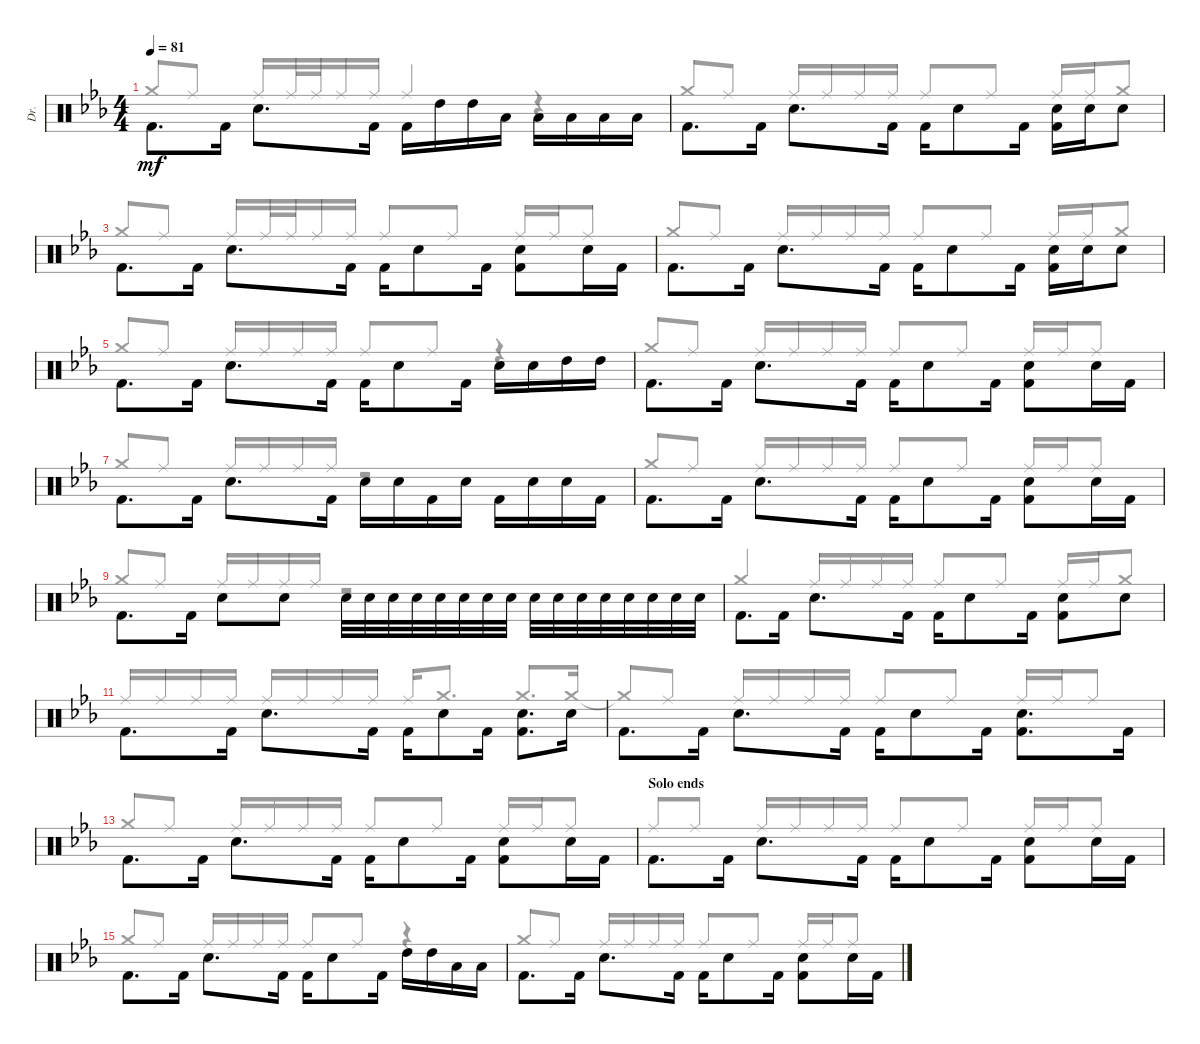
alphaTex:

\bracketExtendMode groupsimilarinstruments
\otherSystemsTrackNameOrientation horizontal
\defaultBarNumberDisplay FirstOfSystem
\track ("Drums" "Dr.") {multiBarRest instrument percussion}
\staff {score}
\articulation defaults
\voice
\ts (4 4)
\tempo 81
\clef neutral
\ks eb "Kick (hit) 2"{acc forcenatural}.8{d dy mf beam Down} "Kick (hit) 2"{acc forcenatural}.16{beam Down} "Snare (hit) 2"{acc forcenatural}.8{d beam Down} "Kick (hit) 2"{acc forcenatural}.16{beam Down} "Kick (hit) 2"{acc forcenatural}.16{beam Down} "High Tom (hit)"{acc forcenatural}.16{beam Down} "High Tom (hit)"{acc forcenatural}.16{beam Down} "Low Tom (hit)"{acc forcenatural}.16{beam Down} "Low Tom (hit)"{acc forcenatural}.16{beam Down} "Low Tom (hit)"{acc forcenatural}.16{beam Down} "Low Tom (hit)"{acc forcenatural}.16{beam Down} "Low Tom (hit)"{acc forcenatural}.16{beam Down}
|
"Kick (hit) 2"{acc forcenatural}.8{d beam Down} "Kick (hit) 2"{acc forcenatural}.16{beam Down} "Snare (hit) 2"{acc forcenatural}.8{d beam Down} "Kick (hit) 2"{acc forcenatural}.16{beam Down} "Kick (hit) 2"{acc forcenatural}.16{beam Down} "Snare (hit) 2"{acc forcenatural}.8{beam Down} "Kick (hit) 2"{acc forcenatural}.16{beam Down} ("Snare (hit) 2"{acc forcenatural} "Kick (hit) 2"{acc forcenatural}).16{beam Down} "Snare (hit) 2"{acc forcenatural}.16{beam Down} "Snare (hit) 2"{acc forcenatural}.8{beam Down} |
"Kick (hit) 2"{acc forcenatural}.8{d beam Down} "Kick (hit) 2"{acc forcenatural}.16{beam Down} "Snare (hit) 2"{acc forcenatural}.8{d beam Down} "Kick (hit) 2"{acc forcenatural}.16{beam Down} "Kick (hit) 2"{acc forcenatural}.16{beam Down} "Snare (hit) 2"{acc forcenatural}.8{beam Down} "Kick (hit) 2"{acc forcenatural}.16{beam Down} ("Snare (hit) 2"{acc forcenatural} "Kick (hit) 2"{acc forcenatural}).8{beam Down} "Snare (hit) 2"{acc forcenatural}.16{beam Down} "Kick (hit) 2"{acc forcenatural}.16{beam Down} |
"Kick (hit) 2"{acc forcenatural}.8{d beam Down} "Kick (hit) 2"{acc forcenatural}.16{beam Down} "Snare (hit) 2"{acc forcenatural}.8{d beam Down} "Kick (hit) 2"{acc forcenatural}.16{beam Down} "Kick (hit) 2"{acc forcenatural}.16{beam Down} "Snare (hit) 2"{acc forcenatural}.8{beam Down} "Kick (hit) 2"{acc forcenatural}.16{beam Down} ("Kick (hit) 2"{acc forcenatural} "Snare (hit) 2"{acc forcenatural}).16{beam Down} "Snare (hit) 2"{acc forcenatural}.16{beam Down} "Snare (hit) 2"{acc forcenatural}.8{beam Down} |
"Kick (hit) 2"{acc forcenatural}.8{d beam Down} "Kick (hit) 2"{acc forcenatural}.16{beam Down} "Snare (hit) 2"{acc forcenatural}.8{d beam Down} "Kick (hit) 2"{acc forcenatural}.16{beam Down} "Kick (hit) 2"{acc forcenatural}.16{beam Down} "Snare (hit) 2"{acc forcenatural}.8{beam Down} "Kick (hit) 2"{acc forcenatural}.16{beam Down} "Snare (hit) 2"{acc forcenatural}.16{beam Down} "Snare (hit) 2"{acc forcenatural}.16{beam Down} "High Tom (hit)"{acc forcenatural}.16{beam Down} "High Tom (hit)"{acc forcenatural}.16{beam Down} |
"Kick (hit) 2"{acc forcenatural}.8{d beam Down} "Kick (hit) 2"{acc forcenatural}.16{beam Down} "Snare (hit) 2"{acc forcenatural}.8{d beam Down} "Kick (hit) 2"{acc forcenatural}.16{beam Down} "Kick (hit) 2"{acc forcenatural}.16{beam Down} "Snare (hit) 2"{acc forcenatural}.8{beam Down} "Kick (hit) 2"{acc forcenatural}.16{beam Down} ("Snare (hit) 2"{acc forcenatural} "Kick (hit) 2"{acc forcenatural}).8{beam Down} "Snare (hit) 2"{acc forcenatural}.16{beam Down} "Kick (hit) 2"{acc forcenatural}.16{beam Down} |
"Kick (hit) 2"{acc forcenatural}.8{d beam Down} "Kick (hit) 2"{acc forcenatural}.16{beam Down} "Snare (hit) 2"{acc forcenatural}.8{d beam Down} "Kick (hit) 2"{acc forcenatural}.16{beam Down} "Snare (hit) 2"{acc forcenatural}.16{beam Down} "Snare (hit) 2"{acc forcenatural}.16{beam Down} "Kick (hit) 2"{acc forcenatural}.16{beam Down} "Snare (hit) 2"{acc forcenatural}.16{beam Down} "Kick (hit) 2"{acc forcenatural}.16{beam Down} "Snare (hit) 2"{acc forcenatural}.16{beam Down} "Snare (hit) 2"{acc forcenatural}.16{beam Down} "Kick (hit) 2"{acc forcenatural}.16{beam Down} |
"Kick (hit) 2"{acc forcenatural}.8{d beam Down} "Kick (hit) 2"{acc forcenatural}.16{beam Down} "Snare (hit) 2"{acc forcenatural}.8{d beam Down} "Kick (hit) 2"{acc forcenatural}.16{beam Down} "Kick (hit) 2"{acc forcenatural}.16{beam Down} "Snare (hit) 2"{acc forcenatural}.8{beam Down} "Kick (hit) 2"{acc forcenatural}.16{beam Down} ("Snare (hit) 2"{acc forcenatural} "Kick (hit) 2"{acc forcenatural}).8{beam Down} "Snare (hit) 2"{acc forcenatural}.16{beam Down} "Kick (hit) 2"{acc forcenatural}.16{beam Down} |
"Kick (hit) 2"{acc forcenatural}.8{d beam Down} "Kick (hit) 2"{acc forcenatural}.16{beam Down} "Snare (hit) 2"{acc forcenatural}.8{beam Down} "Snare (hit) 2"{acc forcenatural}.8{beam Down} "Snare (hit) 2"{acc forcenatural}.32{beam Down} "Snare (hit) 2"{acc forcenatural}.32{beam Down} "Snare (hit) 2"{acc forcenatural}.32{beam Down} "Snare (hit) 2"{acc forcenatural}.32{beam Down} "Snare (hit) 2"{acc forcenatural}.32{beam Down} "Snare (hit) 2"{acc forcenatural}.32{beam Down} "Snare (hit) 2"{acc forcenatural}.32{beam Down} "Snare (hit) 2"{acc forcenatural}.32{beam Down} "Snare (hit) 2"{acc forcenatural}.32{beam Down} "Snare (hit) 2"{acc forcenatural}.32{beam Down} "Snare (hit) 2"{acc forcenatural}.32{beam Down} "Snare (hit) 2"{acc forcenatural}.32{beam Down} "Snare (hit) 2"{acc forcenatural}.32{beam Down} "Snare (hit) 2"{acc forcenatural}.32{beam Down} "Snare (hit) 2"{acc forcenatural}.32{beam Down} "Snare (hit) 2"{acc forcenatural}.32{beam Down} |
"Kick (hit) 2"{acc forcenatural}.8{d beam Down} "Kick (hit) 2"{acc forcenatural}.16{beam Down} "Snare (hit) 2"{acc forcenatural}.8{d beam Down} "Kick (hit) 2"{acc forcenatural}.16{beam Down} "Kick (hit) 2"{acc forcenatural}.16{beam Down} "Snare (hit) 2"{acc forcenatural}.8{beam Down} "Kick (hit) 2"{acc forcenatural}.16{beam Down} ("Snare (hit) 2"{acc forcenatural} "Kick (hit) 2"{acc forcenatural}).8{beam Down} "Snare (hit) 2"{acc forcenatural}.8{beam Down} |
"Kick (hit) 2"{acc forcenatural}.8{d beam Down} "Kick (hit) 2"{acc forcenatural}.16{beam Down} "Snare (hit) 2"{acc forcenatural}.8{d beam Down} "Kick (hit) 2"{acc forcenatural}.16{beam Down} "Kick (hit) 2"{acc forcenatural}.16{beam Down} "Snare (hit) 2"{acc forcenatural}.8{beam Down} "Kick (hit) 2"{acc forcenatural}.16{beam Down} ("Snare (hit) 2"{acc forcenatural} "Kick (hit) 2"{acc forcenatural}).8{d beam Down} "Snare (hit) 2"{acc forcenatural}.16{beam Down} |
"Kick (hit) 2"{acc forcenatural}.8{d beam Down} "Kick (hit) 2"{acc forcenatural}.16{beam Down} "Snare (hit) 2"{acc forcenatural}.8{d beam Down} "Kick (hit) 2"{acc forcenatural}.16{beam Down} "Kick (hit) 2"{acc forcenatural}.16{beam Down} "Snare (hit) 2"{acc forcenatural}.8{beam Down} "Kick (hit) 2"{acc forcenatural}.16{beam Down} ("Snare (hit) 2"{acc forcenatural} "Kick (hit) 2"{acc forcenatural}).8{d beam Down} "Kick (hit) 2"{acc forcenatural}.16{beam Down} |
"Kick (hit) 2"{acc forcenatural}.8{d beam Down} "Kick (hit) 2"{acc forcenatural}.16{beam Down} "Snare (hit) 2"{acc forcenatural}.8{d beam Down} "Kick (hit) 2"{acc forcenatural}.16{beam Down} "Kick (hit) 2"{acc forcenatural}.16{beam Down} "Snare (hit) 2"{acc forcenatural}.8{beam Down} "Kick (hit) 2"{acc forcenatural}.16{beam Down} ("Snare (hit) 2"{acc forcenatural} "Kick (hit) 2"{acc forcenatural}).8{beam Down} "Snare (hit) 2"{acc forcenatural}.16{beam Down} "Kick (hit) 2"{acc forcenatural}.16{beam Down} |
\section ("" "Solo ends")
"Kick (hit) 2"{acc forcenatural}.8{d beam Down} "Kick (hit) 2"{acc forcenatural}.16{beam Down} "Snare (hit) 2"{acc forcenatural}.8{d beam Down} "Kick (hit) 2"{acc forcenatural}.16{beam Down} "Kick (hit) 2"{acc forcenatural}.16{beam Down} "Snare (hit) 2"{acc forcenatural}.8{beam Down} "Kick (hit) 2"{acc forcenatural}.16{beam Down} ("Snare (hit) 2"{acc forcenatural} "Kick (hit) 2"{acc forcenatural}).8{beam Down} "Snare (hit) 2"{acc forcenatural}.16{beam Down} "Kick (hit) 2"{acc forcenatural}.16{beam Down} |
"Kick (hit) 2"{acc forcenatural}.8{d beam Down} "Kick (hit) 2"{acc forcenatural}.16{beam Down} "Snare (hit) 2"{acc forcenatural}.8{d beam Down} "Kick (hit) 2"{acc forcenatural}.16{beam Down} "Kick (hit) 2"{acc forcenatural}.16{beam Down} "Snare (hit) 2"{acc forcenatural}.8{beam Down} "Kick (hit) 2"{acc forcenatural}.16{beam Down} "High Tom (hit)"{acc forcenatural}.16{beam Down} "High Tom (hit)"{acc forcenatural}.16{beam Down} "Low Tom (hit)"{acc forcenatural}.16{beam Down} "Low Tom (hit)"{acc forcenatural}.16{beam Down} |
"Kick (hit) 2"{acc forcenatural}.8{d beam Down} "Kick (hit) 2"{acc forcenatural}.16{beam Down} "Snare (hit) 2"{acc forcenatural}.8{d beam Down} "Kick (hit) 2"{acc forcenatural}.16{beam Down} "Kick (hit) 2"{acc forcenatural}.16{beam Down} "Snare (hit) 2"{acc forcenatural}.8{beam Down} "Kick (hit) 2"{acc forcenatural}.16{beam Down} ("Snare (hit) 2"{acc forcenatural} "Kick (hit) 2"{acc forcenatural}).8{beam Down} "Snare (hit) 2"{acc forcenatural}.16{beam Down} "Kick (hit) 2"{acc forcenatural}.16{beam Down}
\voice
\clef neutral
\ottava regular
\simile none
\ks eb "Crash medium (hit)"{acc forcenatural}.8{dy mf beam Up} "Ride (middle)"{acc forcenatural}.8{beam Up} "Ride (middle)"{acc forcenatural}.16{beam Up} "Ride (middle)"{acc forcenatural}.32{beam Up} "Ride (middle)"{acc forcenatural}.32{beam Up} "Ride (middle)"{acc forcenatural}.16{beam Up} "Ride (middle)"{acc forcenatural}.16{beam Up} "Ride (middle)"{acc forcenatural}.4{beam Up}
r.4{beam Down} |
"Crash medium (hit)"{acc forcenatural}.8{beam Up} "Ride (middle)"{acc forcenatural}.8{beam Up} "Ride (middle)"{acc forcenatural}.16{beam Up} "Ride (middle)"{acc forcenatural}.16{beam Up} "Ride (middle)"{acc forcenatural}.16{beam Up} "Ride (middle)"{acc forcenatural}.16{beam Up} "Ride (middle)"{acc forcenatural}.8{beam Up} "Ride (middle)"{acc forcenatural}.8{beam Up} "Ride (middle)"{acc forcenatural}.16{beam Up} "Ride (middle)"{acc forcenatural}.16{beam Up} "Crash medium (hit)"{acc forcenatural}.8{beam Up} |
"Crash medium (hit)"{acc forcenatural}.8{beam Up} "Ride (middle)"{acc forcenatural}.8{beam Up} "Ride (middle)"{acc forcenatural}.16{beam Up} "Ride (middle)"{acc forcenatural}.32{beam Up} "Ride (middle)"{acc forcenatural}.32{beam Up} "Ride (middle)"{acc forcenatural}.16{beam Up} "Ride (middle)"{acc forcenatural}.16{beam Up} "Ride (middle)"{acc forcenatural}.8{beam Up} "Ride (middle)"{acc forcenatural}.8{beam Up} "Ride (middle)"{acc forcenatural}.16{beam Up} "Ride (middle)"{acc forcenatural}.16{beam Up} "Ride (middle)"{acc forcenatural}.8{beam Up} |
"Crash medium (hit)"{acc forcenatural}.8{beam Up} "Ride (middle)"{acc forcenatural}.8{beam Up} "Ride (middle)"{acc forcenatural}.16{beam Up} "Ride (middle)"{acc forcenatural}.16{beam Up} "Ride (middle)"{acc forcenatural}.16{beam Up} "Ride (middle)"{acc forcenatural}.16{beam Up} "Ride (middle)"{acc forcenatural}.8{beam Up} "Ride (middle)"{acc forcenatural}.8{beam Up} "Ride (middle)"{acc forcenatural}.16{beam Up} "Ride (middle)"{acc forcenatural}.16{beam Up} "Crash medium (hit)"{acc forcenatural}.8{beam Up} |
"Crash medium (hit)"{acc forcenatural}.8{beam Up} "Ride (middle)"{acc forcenatural}.8{beam Up} "Ride (middle)"{acc forcenatural}.16{beam Up} "Ride (middle)"{acc forcenatural}.16{beam Up} "Ride (middle)"{acc forcenatural}.16{beam Up} "Ride (middle)"{acc forcenatural}.16{beam Up} "Ride (middle)"{acc forcenatural}.8{beam Up} "Ride (middle)"{acc forcenatural}.8{beam Up} r.4{beam Up} |
"Crash medium (hit)"{acc forcenatural}.8{beam Up} "Ride (middle)"{acc forcenatural}.8{beam Up} "Ride (middle)"{acc forcenatural}.16{beam Up} "Ride (middle)"{acc forcenatural}.16{beam Up} "Ride (middle)"{acc forcenatural}.16{beam Up} "Ride (middle)"{acc forcenatural}.16{beam Up} "Ride (middle)"{acc forcenatural}.8{beam Up} "Ride (middle)"{acc forcenatural}.8{beam Up} "Ride (middle)"{acc forcenatural}.16{beam Up} "Ride (middle)"{acc forcenatural}.16{beam Up} "Ride (middle)"{acc forcenatural}.8{beam Up} |
"Crash medium (hit)"{acc forcenatural}.8{beam Up} "Ride (middle)"{acc forcenatural}.8{beam Up} "Ride (middle)"{acc forcenatural}.16{beam Up} "Ride (middle)"{acc forcenatural}.16{beam Up} "Ride (middle)"{acc forcenatural}.16{beam Up} "Ride (middle)"{acc forcenatural}.16{beam Up} r.2{beam Up} |
"Crash medium (hit)"{acc forcenatural}.8{beam Up} "Ride (middle)"{acc forcenatural}.8{beam Up} "Ride (middle)"{acc forcenatural}.16{beam Up} "Ride (middle)"{acc forcenatural}.16{beam Up} "Ride (middle)"{acc forcenatural}.16{beam Up} "Ride (middle)"{acc forcenatural}.16{beam Up} "Ride (middle)"{acc forcenatural}.8{beam Up} "Ride (middle)"{acc forcenatural}.8{beam Up} "Ride (middle)"{acc forcenatural}.16{beam Up} "Ride (middle)"{acc forcenatural}.16{beam Up} "Ride (middle)"{acc forcenatural}.8{beam Up} |
"Crash medium (hit)"{acc forcenatural}.8{beam Up} "Ride (middle)"{acc forcenatural}.8{beam Up} "Ride (middle)"{acc forcenatural}.16{beam Up} "Ride (middle)"{acc forcenatural}.16{beam Up} "Ride (middle)"{acc forcenatural}.16{beam Up} "Ride (middle)"{acc forcenatural}.16{beam Up} r.2{beam Down} |
"Crash medium (hit)"{acc forcenatural}.4{beam Up} "Ride (middle)"{acc forcenatural}.16{beam Up} "Ride (middle)"{acc forcenatural}.16{beam Up} "Ride (middle)"{acc forcenatural}.16{beam Up} "Ride (middle)"{acc forcenatural}.16{beam Up} "Ride (middle)"{acc forcenatural}.8{beam Up} "Ride (middle)"{acc forcenatural}.8{beam Up} "Ride (middle)"{acc forcenatural}.16{beam Up} "Ride (middle)"{acc forcenatural}.16{beam Up} "Crash medium (hit)"{acc forcenatural}.8{beam Up} |
"Ride (middle)"{acc forcenatural}.16{beam Up} "Ride (middle)"{acc forcenatural}.16{beam Up} "Ride (middle)"{acc forcenatural}.16{beam Up} "Ride (middle)"{acc forcenatural}.16{beam Up} "Ride (middle)"{acc forcenatural}.16{beam Up} "Ride (middle)"{acc forcenatural}.16{beam Up} "Ride (middle)"{acc forcenatural}.16{beam Up} "Ride (middle)"{acc forcenatural}.16{beam Up} "Ride (middle)"{acc forcenatural}.16{beam Up} "Crash medium (hit)"{acc forcenatural}.8{d beam Up} "Crash medium (hit)"{acc forcenatural}.8{d beam Up} "Crash medium (hit)"{acc forcenatural}.16{beam Up} |
"Crash medium (hit)"{t acc forcenatural}.8{beam Up} "Ride (middle)"{acc forcenatural}.8{beam Up} "Ride (middle)"{acc forcenatural}.16{beam Up} "Ride (middle)"{acc forcenatural}.16{beam Up} "Ride (middle)"{acc forcenatural}.16{beam Up} "Ride (middle)"{acc forcenatural}.16{beam Up} "Ride (middle)"{acc forcenatural}.8{beam Up} "Ride (middle)"{acc forcenatural}.8{beam Up} "Ride (middle)"{acc forcenatural}.16{beam Up} "Ride (middle)"{acc forcenatural}.16{beam Up} "Ride (middle)"{acc forcenatural}.8{beam Up} |
"Crash medium (hit)"{acc forcenatural}.8{beam Up} "Ride (middle)"{acc forcenatural}.8{beam Up} "Ride (middle)"{acc forcenatural}.16{beam Up} "Ride (middle)"{acc forcenatural}.16{beam Up} "Ride (middle)"{acc forcenatural}.16{beam Up} "Ride (middle)"{acc forcenatural}.16{beam Up} "Ride (middle)"{acc forcenatural}.8{beam Up} "Ride (middle)"{acc forcenatural}.8{beam Up} "Ride (middle)"{acc forcenatural}.16{beam Up} "Ride (middle)"{acc forcenatural}.16{beam Up} "Ride (middle)"{acc forcenatural}.8{beam Up} |
"Ride (middle)"{acc forcenatural}.8{beam Up} "Ride (middle)"{acc forcenatural}.8{beam Up} "Ride (middle)"{acc forcenatural}.16{beam Up} "Ride (middle)"{acc forcenatural}.16{beam Up} "Ride (middle)"{acc forcenatural}.16{beam Up} "Ride (middle)"{acc forcenatural}.16{beam Up} "Ride (middle)"{acc forcenatural}.8{beam Up} "Ride (middle)"{acc forcenatural}.8{beam Up} "Ride (middle)"{acc forcenatural}.16{beam Up} "Ride (middle)"{acc forcenatural}.16{beam Up} "Ride (middle)"{acc forcenatural}.8{beam Up} |
"Crash medium (hit)"{acc forcenatural}.8{beam Up} "Ride (middle)"{acc forcenatural}.8{beam Up} "Ride (middle)"{acc forcenatural}.16{beam Up} "Ride (middle)"{acc forcenatural}.16{beam Up} "Ride (middle)"{acc forcenatural}.16{beam Up} "Ride (middle)"{acc forcenatural}.16{beam Up} "Ride (middle)"{acc forcenatural}.8{beam Up} "Ride (middle)"{acc forcenatural}.8{beam Up} r.4{beam Down} |
"Crash medium (hit)"{acc forcenatural}.8{beam Up} "Ride (middle)"{acc forcenatural}.8{beam Up} "Ride (middle)"{acc forcenatural}.16{beam Up} "Ride (middle)"{acc forcenatural}.16{beam Up} "Ride (middle)"{acc forcenatural}.16{beam Up} "Ride (middle)"{acc forcenatural}.16{beam Up} "Ride (middle)"{acc forcenatural}.8{beam Up} "Ride (middle)"{acc forcenatural}.8{beam Up} "Ride (middle)"{acc forcenatural}.16{beam Up} "Ride (middle)"{acc forcenatural}.16{beam Up} "Ride (middle)"{acc forcenatural}.8{beam Up}
